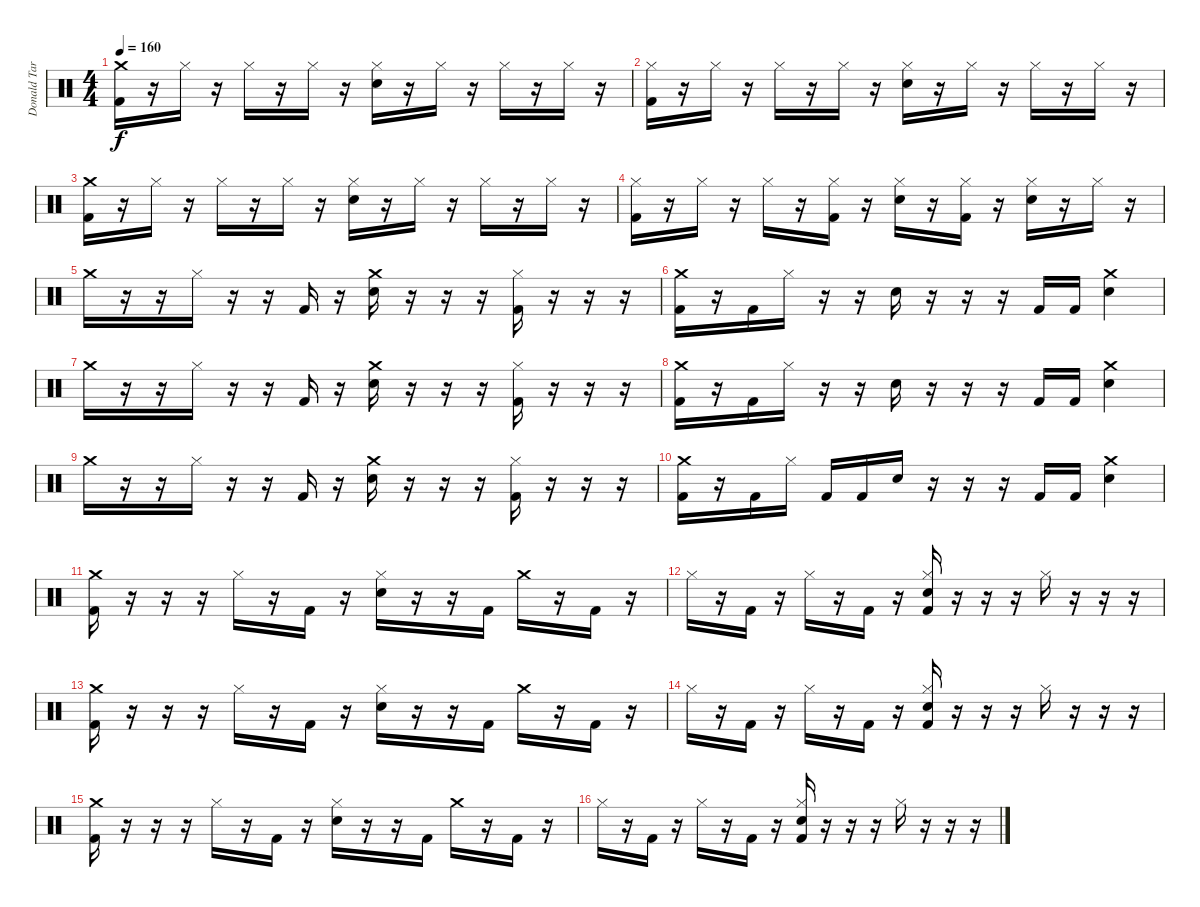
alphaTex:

\track ("Donald Tardy" "Donald Tar") {instrument percussion}
\staff {score}
\articulation defaults
\ts (4 4)
\tempo 160
\clef neutral
\ks c
("Crash medium (hit)" "Kick (hit) 2").16{dy f} r.16 "Hi-Hat (closed)".16 r.16 "Hi-Hat (closed)".16 r.16 "Hi-Hat (closed)".16 r.16 ("Hi-Hat (closed)" "Electric Snare (hit)").16 r.16 "Hi-Hat (closed)".16 r.16 "Hi-Hat (closed)".16 r.16 "Hi-Hat (closed)".16 r.16 |
("Hi-Hat (closed)" "Kick (hit) 2").16 r.16 "Hi-Hat (closed)".16 r.16 "Hi-Hat (closed)".16 r.16 "Hi-Hat (closed)".16 r.16 ("Hi-Hat (closed)" "Electric Snare (hit)").16 r.16 "Hi-Hat (closed)".16 r.16 "Hi-Hat (closed)".16 r.16 "Hi-Hat (closed)".16 r.16 |
("Crash medium (hit)" "Kick (hit) 2").16 r.16 "Hi-Hat (closed)".16 r.16 "Hi-Hat (closed)".16 r.16 "Hi-Hat (closed)".16 r.16 ("Hi-Hat (closed)" "Electric Snare (hit)").16 r.16 "Hi-Hat (closed)".16 r.16 "Hi-Hat (closed)".16 r.16 "Hi-Hat (closed)".16 r.16 |
("Hi-Hat (closed)" "Kick (hit) 2").16 r.16 "Hi-Hat (closed)".16 r.16 "Hi-Hat (closed)".16 r.16 ("Hi-Hat (closed)" "Kick (hit) 2").16 r.16 ("Hi-Hat (closed)" "Electric Snare (hit)").16 r.16 ("Hi-Hat (closed)" "Kick (hit) 2").16 r.16 ("Hi-Hat (closed)" "Electric Snare (hit)").16 r.16 "Hi-Hat (closed)".16 r.16 |
"Crash medium (hit)".16 r.16 r.16 "Hi-Hat (closed)".16 r.16 r.16 "Kick (hit) 2".16 r.16 ("Crash medium (hit)" "Electric Snare (hit)").16 r.16 r.16 r.16 ("Hi-Hat (closed)" "Kick (hit) 2").16 r.16 r.16 r.16 |
("Crash medium (hit)" "Kick (hit) 2").16 r.16 "Kick (hit) 2".16 "Hi-Hat (closed)".16 r.16 r.16 "Electric Snare (hit)".16 r.16 r.16 r.16 "Kick (hit) 2".16 "Kick (hit) 2".16 ("Crash medium (hit)" "Electric Snare (hit)").4 |
"Crash medium (hit)".16 r.16 r.16 "Hi-Hat (closed)".16 r.16 r.16 "Kick (hit) 2".16 r.16 ("Crash medium (hit)" "Electric Snare (hit)").16 r.16 r.16 r.16 ("Hi-Hat (closed)" "Kick (hit) 2").16 r.16 r.16 r.16 |
("Crash medium (hit)" "Kick (hit) 2").16 r.16 "Kick (hit) 2".16 "Hi-Hat (closed)".16 r.16 r.16 "Electric Snare (hit)".16 r.16 r.16 r.16 "Kick (hit) 2".16 "Kick (hit) 2".16 ("Crash medium (hit)" "Electric Snare (hit)").4 |
"Crash medium (hit)".16 r.16 r.16 "Hi-Hat (closed)".16 r.16 r.16 "Kick (hit) 2".16 r.16 ("Crash medium (hit)" "Electric Snare (hit)").16 r.16 r.16 r.16 ("Hi-Hat (closed)" "Kick (hit) 2").16 r.16 r.16 r.16 |
("Crash medium (hit)" "Kick (hit) 2").16 r.16 "Kick (hit) 2".16 "Hi-Hat (closed)".16 "Kick (hit) 2".16 "Kick (hit) 2".16 "Electric Snare (hit)".16 r.16 r.16 r.16 "Kick (hit) 2".16 "Kick (hit) 2".16 ("Crash medium (hit)" "Electric Snare (hit)").4 |
("Crash medium (hit)" "Kick (hit) 2").16 r.16 r.16 r.16 "Hi-Hat (closed)".16 r.16 "Kick (hit) 2".16 r.16 ("Hi-Hat (closed)" "Electric Snare (hit)").16 r.16 r.16 "Kick (hit) 2".16 "Crash medium (hit)".16 r.16 "Kick (hit) 2".16 r.16 |
"Hi-Hat (closed)".16 r.16 "Kick (hit) 2".16 r.16 "Hi-Hat (closed)".16 r.16 "Kick (hit) 2".16 r.16 ("Hi-Hat (closed)" "Electric Snare (hit)" "Kick (hit) 2").16 r.16 r.16 r.16 "Hi-Hat (closed)".16 r.16 r.16 r.16 |
("Crash medium (hit)" "Kick (hit) 2").16 r.16 r.16 r.16 "Hi-Hat (closed)".16 r.16 "Kick (hit) 2".16 r.16 ("Hi-Hat (closed)" "Electric Snare (hit)").16 r.16 r.16 "Kick (hit) 2".16 "Crash medium (hit)".16 r.16 "Kick (hit) 2".16 r.16 |
"Hi-Hat (closed)".16 r.16 "Kick (hit) 2".16 r.16 "Hi-Hat (closed)".16 r.16 "Kick (hit) 2".16 r.16 ("Hi-Hat (closed)" "Electric Snare (hit)" "Kick (hit) 2").16 r.16 r.16 r.16 "Hi-Hat (closed)".16 r.16 r.16 r.16 |
("Crash medium (hit)" "Kick (hit) 2").16 r.16 r.16 r.16 "Hi-Hat (closed)".16 r.16 "Kick (hit) 2".16 r.16 ("Hi-Hat (closed)" "Electric Snare (hit)").16 r.16 r.16 "Kick (hit) 2".16 "Crash medium (hit)".16 r.16 "Kick (hit) 2".16 r.16 |
"Hi-Hat (closed)".16 r.16 "Kick (hit) 2".16 r.16 "Hi-Hat (closed)".16 r.16 "Kick (hit) 2".16 r.16 ("Hi-Hat (closed)" "Electric Snare (hit)" "Kick (hit) 2").16 r.16 r.16 r.16 "Hi-Hat (closed)".16 r.16 r.16 r.16
